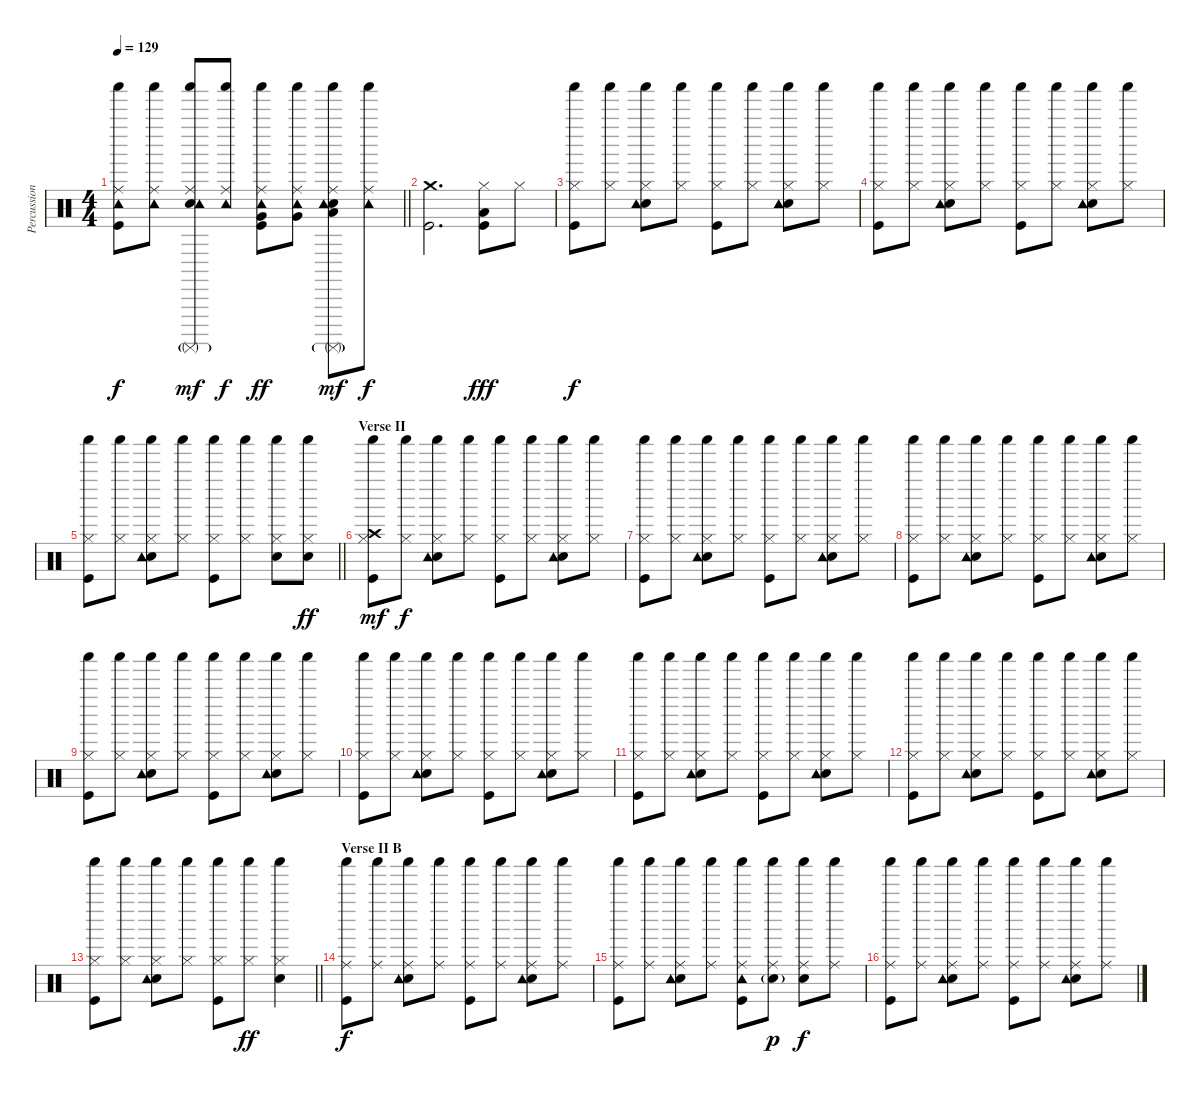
\track ("Percussion" "Percussion") {instrument percussion}
\staff {score}
\articulation defaults
\ts (4 4)
\tempo 129
\clef neutral
\barLineRight lightlight
\ks c
("Shaker (hit)" "Ride (middle)" "Tambourine (hit)" "Kick (hit)").8{dy f} ("Shaker (hit)" "Ride (middle)" "Tambourine (hit)").8 ("Shaker (hit)" "Ride (middle)" "Snare (hit) 2" "Tambourine (hit)" "Surdo (mute)"{g}).8{dy mf} ("Shaker (hit)" "Ride (middle)" "Tambourine (hit)").8{dy f} ("Very Low Tom (hit)" "Shaker (hit)" "Ride (middle)" "Tambourine (hit)" "Kick (hit)").8{dy ff} ("Very Low Tom (hit)" "Shaker (hit)" "Ride (middle)" "Tambourine (hit)").8 ("Low Floor Tom (hit)" "Shaker (hit)" "Ride (middle)" "Snare (hit) 2" "Tambourine (hit)" "Surdo (mute)"{g}).8{dy mf} ("Shaker (hit)" "Ride (middle)" "Tambourine (hit)").8{dy f} |
("Crash medium (hit)" "Kick (hit)").2{d} ("Hi-Hat (closed)" "Low Floor Tom (hit)" "Kick (hit)").8{dy fff} "Hi-Hat (closed)".8 |
("Shaker (hit)" "Hi-Hat (closed)" "Kick (hit)").8{dy f} ("Shaker (hit)" "Hi-Hat (closed)").8 ("Shaker (hit)" "Hi-Hat (closed)" "Snare (hit) 2" "Tambourine (hit)").8 ("Shaker (hit)" "Hi-Hat (closed)").8 ("Shaker (hit)" "Hi-Hat (closed)" "Kick (hit)").8 ("Shaker (hit)" "Hi-Hat (closed)").8 ("Shaker (hit)" "Hi-Hat (closed)" "Snare (hit) 2" "Tambourine (hit)").8 ("Shaker (hit)" "Hi-Hat (closed)").8 |
("Shaker (hit)" "Hi-Hat (closed)" "Kick (hit)").8 ("Shaker (hit)" "Hi-Hat (closed)").8 ("Shaker (hit)" "Hi-Hat (closed)" "Snare (hit) 2" "Tambourine (hit)").8 ("Shaker (hit)" "Hi-Hat (closed)").8 ("Shaker (hit)" "Hi-Hat (closed)" "Kick (hit)").8 ("Shaker (hit)" "Hi-Hat (closed)").8 ("Shaker (hit)" "Hi-Hat (closed)" "Snare (hit) 2" "Tambourine (hit)").8 ("Shaker (hit)" "Hi-Hat (closed)").8 |
\barLineRight lightlight
("Shaker (hit)" "Hi-Hat (closed)" "Kick (hit)").8 ("Shaker (hit)" "Hi-Hat (closed)").8 ("Shaker (hit)" "Hi-Hat (closed)" "Snare (hit) 2" "Tambourine (hit)").8 ("Shaker (hit)" "Hi-Hat (closed)").8 ("Shaker (hit)" "Hi-Hat (closed)" "Kick (hit)").8 ("Shaker (hit)" "Hi-Hat (closed)").8 ("Shaker (hit)" "Hi-Hat (closed)" "Snare (hit) 2").8 ("Shaker (hit)" "Hi-Hat (closed)" "Snare (hit) 2").8{dy ff} |
\section ("" "Verse II")
("Crash high (hit)" "Shaker (hit)" "Hi-Hat (closed)" "Kick (hit)").8{dy mf} ("Shaker (hit)" "Hi-Hat (closed)").8{dy f} ("Shaker (hit)" "Hi-Hat (closed)" "Snare (hit) 2" "Tambourine (hit)").8 ("Shaker (hit)" "Hi-Hat (closed)").8 ("Shaker (hit)" "Hi-Hat (closed)" "Kick (hit)").8 ("Shaker (hit)" "Hi-Hat (closed)").8 ("Shaker (hit)" "Hi-Hat (closed)" "Snare (hit) 2" "Tambourine (hit)").8 ("Shaker (hit)" "Hi-Hat (closed)").8 |
("Shaker (hit)" "Hi-Hat (closed)" "Kick (hit)").8 ("Shaker (hit)" "Hi-Hat (closed)").8 ("Shaker (hit)" "Hi-Hat (closed)" "Snare (hit) 2" "Tambourine (hit)").8 ("Shaker (hit)" "Hi-Hat (closed)").8 ("Shaker (hit)" "Hi-Hat (closed)" "Kick (hit)").8 ("Shaker (hit)" "Hi-Hat (closed)").8 ("Shaker (hit)" "Hi-Hat (closed)" "Snare (hit) 2" "Tambourine (hit)").8 ("Shaker (hit)" "Hi-Hat (closed)").8 |
("Shaker (hit)" "Hi-Hat (closed)" "Kick (hit)").8 ("Shaker (hit)" "Hi-Hat (closed)").8 ("Shaker (hit)" "Hi-Hat (closed)" "Snare (hit) 2" "Tambourine (hit)").8 ("Shaker (hit)" "Hi-Hat (closed)").8 ("Shaker (hit)" "Hi-Hat (closed)" "Kick (hit)").8 ("Shaker (hit)" "Hi-Hat (closed)").8 ("Shaker (hit)" "Hi-Hat (closed)" "Snare (hit) 2" "Tambourine (hit)").8 ("Shaker (hit)" "Hi-Hat (closed)").8 |
("Shaker (hit)" "Hi-Hat (closed)" "Kick (hit)").8 ("Shaker (hit)" "Hi-Hat (closed)").8 ("Shaker (hit)" "Hi-Hat (closed)" "Snare (hit) 2" "Tambourine (hit)").8 ("Shaker (hit)" "Hi-Hat (closed)").8 ("Shaker (hit)" "Hi-Hat (closed)" "Kick (hit)").8 ("Shaker (hit)" "Hi-Hat (closed)").8 ("Shaker (hit)" "Hi-Hat (closed)" "Snare (hit) 2" "Tambourine (hit)").8 ("Shaker (hit)" "Hi-Hat (closed)").8 |
("Shaker (hit)" "Hi-Hat (closed)" "Kick (hit)").8 ("Shaker (hit)" "Hi-Hat (closed)").8 ("Shaker (hit)" "Hi-Hat (closed)" "Snare (hit) 2" "Tambourine (hit)").8 ("Shaker (hit)" "Hi-Hat (closed)").8 ("Shaker (hit)" "Hi-Hat (closed)" "Kick (hit)").8 ("Shaker (hit)" "Hi-Hat (closed)").8 ("Shaker (hit)" "Hi-Hat (closed)" "Snare (hit) 2" "Tambourine (hit)").8 ("Shaker (hit)" "Hi-Hat (closed)").8 |
("Shaker (hit)" "Hi-Hat (closed)" "Kick (hit)").8 ("Shaker (hit)" "Hi-Hat (closed)").8 ("Shaker (hit)" "Hi-Hat (closed)" "Snare (hit) 2" "Tambourine (hit)").8 ("Shaker (hit)" "Hi-Hat (closed)").8 ("Shaker (hit)" "Hi-Hat (closed)" "Kick (hit)").8 ("Shaker (hit)" "Hi-Hat (closed)").8 ("Shaker (hit)" "Hi-Hat (closed)" "Snare (hit) 2" "Tambourine (hit)").8 ("Shaker (hit)" "Hi-Hat (closed)").8 |
("Shaker (hit)" "Hi-Hat (closed)" "Kick (hit)").8 ("Shaker (hit)" "Hi-Hat (closed)").8 ("Shaker (hit)" "Hi-Hat (closed)" "Snare (hit) 2" "Tambourine (hit)").8 ("Shaker (hit)" "Hi-Hat (closed)").8 ("Shaker (hit)" "Hi-Hat (closed)" "Kick (hit)").8 ("Shaker (hit)" "Hi-Hat (closed)").8 ("Shaker (hit)" "Hi-Hat (closed)" "Snare (hit) 2" "Tambourine (hit)").8 ("Shaker (hit)" "Hi-Hat (closed)").8 |
\barLineRight lightlight
("Shaker (hit)" "Hi-Hat (closed)" "Kick (hit)").8 ("Shaker (hit)" "Hi-Hat (closed)").8 ("Shaker (hit)" "Hi-Hat (closed)" "Snare (hit) 2" "Tambourine (hit)").8 ("Shaker (hit)" "Hi-Hat (closed)").8 ("Shaker (hit)" "Hi-Hat (closed)" "Kick (hit)").8 ("Shaker (hit)" "Hi-Hat (closed)").8{dy ff} ("Shaker (hit)" "Hi-Hat (closed)" "Snare (hit) 2").4 |
\section ("" "Verse II B")
("Shaker (hit)" "Ride (middle)" "Kick (hit)").8{dy f} ("Shaker (hit)" "Ride (middle)").8 ("Shaker (hit)" "Ride (middle)" "Snare (hit) 2" "Tambourine (hit)").8 ("Shaker (hit)" "Ride (middle)").8 ("Shaker (hit)" "Ride (middle)" "Kick (hit)").8 ("Shaker (hit)" "Ride (middle)").8 ("Shaker (hit)" "Ride (middle)" "Snare (hit) 2" "Tambourine (hit)").8 ("Shaker (hit)" "Ride (middle)").8 |
("Shaker (hit)" "Ride (middle)" "Kick (hit)").8 ("Shaker (hit)" "Ride (middle)").8 ("Shaker (hit)" "Ride (middle)" "Snare (hit) 2" "Tambourine (hit)").8 ("Shaker (hit)" "Ride (middle)").8 ("Shaker (hit)" "Ride (middle)" "Tambourine (hit)" "Kick (hit)").8 ("Shaker (hit)" "Ride (middle)" "Electric Snare (hit)"{g}).8{dy p} ("Shaker (hit)" "Ride (middle)" "Snare (hit) 2").8{dy f} ("Shaker (hit)" "Ride (middle)").8 |
("Shaker (hit)" "Ride (middle)" "Kick (hit)").8 ("Shaker (hit)" "Ride (middle)").8 ("Shaker (hit)" "Ride (middle)" "Snare (hit) 2" "Tambourine (hit)").8 ("Shaker (hit)" "Ride (middle)").8 ("Shaker (hit)" "Ride (middle)" "Kick (hit)").8 ("Shaker (hit)" "Ride (middle)").8 ("Shaker (hit)" "Ride (middle)" "Snare (hit) 2" "Tambourine (hit)").8 ("Shaker (hit)" "Ride (middle)").8
